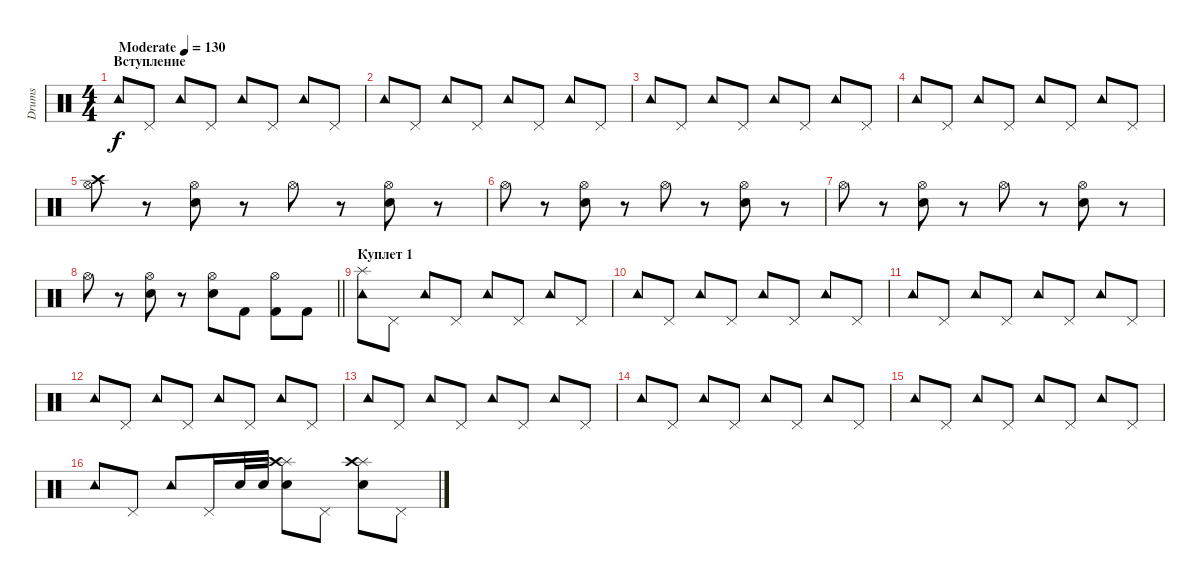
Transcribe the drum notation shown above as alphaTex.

\track ("Drums" "Drums") {instrument percussion}
\staff {score}
\articulation defaults
\ts (4 4)
\section ("" "Вступление")
\tempo (130 "Moderate")
\clef neutral
\ks c "Tambourine (hit)".8{dy f} "Pedal Hi-Hat (hit)".8 "Tambourine (hit)".8 "Pedal Hi-Hat (hit)".8 "Tambourine (hit)".8 "Pedal Hi-Hat (hit)".8 "Tambourine (hit)".8 "Pedal Hi-Hat (hit)".8
|
"Tambourine (hit)".8 "Pedal Hi-Hat (hit)".8 "Tambourine (hit)".8 "Pedal Hi-Hat (hit)".8 "Tambourine (hit)".8 "Pedal Hi-Hat (hit)".8 "Tambourine (hit)".8 "Pedal Hi-Hat (hit)".8 |
"Tambourine (hit)".8 "Pedal Hi-Hat (hit)".8 "Tambourine (hit)".8 "Pedal Hi-Hat (hit)".8 "Tambourine (hit)".8 "Pedal Hi-Hat (hit)".8 "Tambourine (hit)".8 "Pedal Hi-Hat (hit)".8 |
"Tambourine (hit)".8 "Pedal Hi-Hat (hit)".8 "Tambourine (hit)".8 "Pedal Hi-Hat (hit)".8 "Tambourine (hit)".8 "Pedal Hi-Hat (hit)".8 "Tambourine (hit)".8 "Pedal Hi-Hat (hit)".8 |
("Crash high (hit)" "Hi-Hat (open)").8 r.8 ("Snare (hit) 2" "Hi-Hat (open)").8 r.8 "Hi-Hat (open)".8 r.8 ("Snare (hit) 2" "Hi-Hat (open)").8 r.8 |
"Hi-Hat (open)".8 r.8 ("Snare (hit) 2" "Hi-Hat (open)").8 r.8 "Hi-Hat (open)".8 r.8 ("Snare (hit) 2" "Hi-Hat (open)").8 r.8 |
"Hi-Hat (open)".8 r.8 ("Snare (hit) 2" "Hi-Hat (open)").8 r.8 "Hi-Hat (open)".8 r.8 ("Snare (hit) 2" "Hi-Hat (open)").8 r.8 |
\barLineRight lightlight "Hi-Hat (open)".8
r.8 ("Snare (hit) 2" "Hi-Hat (open)").8 r.8 ("Snare (hit) 2" "Hi-Hat (open)").8 "Kick (hit) 2".8 ("Kick (hit) 2" "Hi-Hat (open)").8 "Kick (hit) 2".8 |
\section ("" "Куплет 1")
("Splash (hit)" "Tambourine (hit)").8 "Pedal Hi-Hat (hit)".8 "Tambourine (hit)".8 "Pedal Hi-Hat (hit)".8 "Tambourine (hit)".8 "Pedal Hi-Hat (hit)".8 "Tambourine (hit)".8 "Pedal Hi-Hat (hit)".8 |
"Tambourine (hit)".8 "Pedal Hi-Hat (hit)".8 "Tambourine (hit)".8 "Pedal Hi-Hat (hit)".8 "Tambourine (hit)".8 "Pedal Hi-Hat (hit)".8 "Tambourine (hit)".8 "Pedal Hi-Hat (hit)".8 |
"Tambourine (hit)".8 "Pedal Hi-Hat (hit)".8 "Tambourine (hit)".8 "Pedal Hi-Hat (hit)".8 "Tambourine (hit)".8 "Pedal Hi-Hat (hit)".8 "Tambourine (hit)".8 "Pedal Hi-Hat (hit)".8 |
"Tambourine (hit)".8 "Pedal Hi-Hat (hit)".8 "Tambourine (hit)".8 "Pedal Hi-Hat (hit)".8 "Tambourine (hit)".8 "Pedal Hi-Hat (hit)".8 "Tambourine (hit)".8 "Pedal Hi-Hat (hit)".8 |
"Tambourine (hit)".8 "Pedal Hi-Hat (hit)".8 "Tambourine (hit)".8 "Pedal Hi-Hat (hit)".8 "Tambourine (hit)".8 "Pedal Hi-Hat (hit)".8 "Tambourine (hit)".8 "Pedal Hi-Hat (hit)".8 |
"Tambourine (hit)".8 "Pedal Hi-Hat (hit)".8 "Tambourine (hit)".8 "Pedal Hi-Hat (hit)".8 "Tambourine (hit)".8 "Pedal Hi-Hat (hit)".8 "Tambourine (hit)".8 "Pedal Hi-Hat (hit)".8 |
"Tambourine (hit)".8 "Pedal Hi-Hat (hit)".8 "Tambourine (hit)".8 "Pedal Hi-Hat (hit)".8 "Tambourine (hit)".8 "Pedal Hi-Hat (hit)".8 "Tambourine (hit)".8 "Pedal Hi-Hat (hit)".8 |
"Tambourine (hit)".8 "Pedal Hi-Hat (hit)".8 "Tambourine (hit)".8 "Pedal Hi-Hat (hit)".16 "Snare (hit) 2".32 "Snare (hit) 2".32 ("Splash (hit)" "Crash high (hit)" "Electric Snare (hit)").8 "Pedal Hi-Hat (hit)".8 ("Splash (hit)" "Crash high (hit)" "Snare (hit) 2").8 "Pedal Hi-Hat (hit)".8
